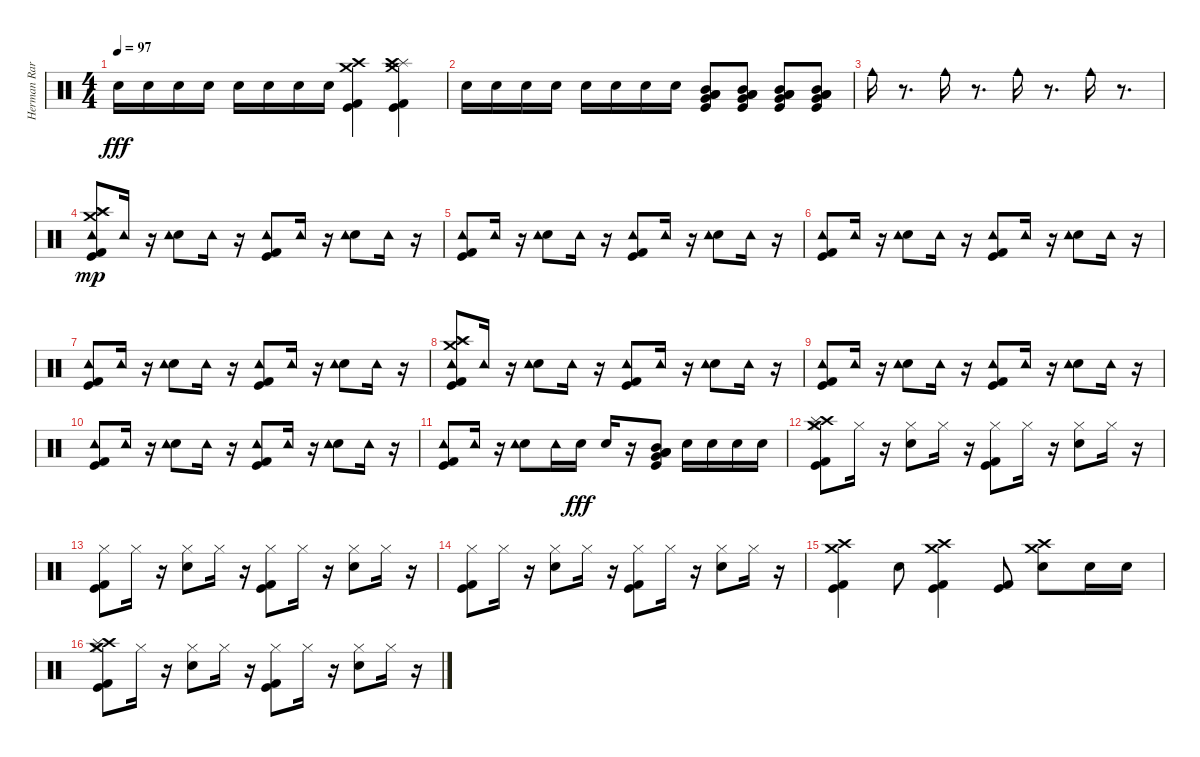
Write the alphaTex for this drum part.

\track ("Herman Rarebell - Drums and Percussion" "Herman Rar") {instrument percussion}
\staff {score}
\articulation defaults
\ts (4 4)
\tempo 97
\clef neutral
\ks c "Snare (hit) 2".16{dy fff} "Snare (hit) 2".16 "Snare (hit) 2".16 "Snare (hit) 2".16 "Snare (hit) 2".16 "Snare (hit) 2".16 "Snare (hit) 2".16 "Snare (hit) 2".16
("Kick (hit) 2" "Kick (hit)" "Crash medium (hit)" "Crash high (hit)").4 ("Kick (hit)" "Kick (hit) 2" "Crash medium (hit)" "Splash (hit)" "Crash high (hit)").4 |
"Snare (hit) 2".16 "Snare (hit) 2".16 "Snare (hit) 2".16 "Snare (hit) 2".16 "Snare (hit) 2".16 "Snare (hit) 2".16 "Snare (hit) 2".16 "Snare (hit) 2".16 ("Mid Tom (hit)" "Low Tom (hit)" "Very Low Tom (hit)" "Low Floor Tom (hit)" "Kick (hit)").8 ("Mid Tom (hit)" "Low Tom (hit)" "Very Low Tom (hit)" "Low Floor Tom (hit)" "Kick (hit)").8 ("Mid Tom (hit)" "Low Tom (hit)" "Very Low Tom (hit)" "Low Floor Tom (hit)" "Kick (hit)").8 ("Mid Tom (hit)" "Low Tom (hit)" "Very Low Tom (hit)" "Low Floor Tom (hit)" "Kick (hit)").8 |
"Cowbell medium (hit)".16 r.8{d} "Cowbell medium (hit)".16 r.8{d} "Cowbell medium (hit)".16 r.8{d} "Cowbell medium (hit)".16 r.8{d} |
("Crash high (hit)" "Splash (hit)" "Crash medium (hit)" "Kick (hit) 2" "Kick (hit)" "Tambourine (hit)").8{dy mp} "Tambourine (hit)".16 r.16 ("Snare (hit) 2" "Tambourine (hit)").8 "Tambourine (hit)".16 r.16 ("Kick (hit) 2" "Kick (hit)" "Tambourine (hit)").8 "Tambourine (hit)".16 r.16 ("Snare (hit) 2" "Tambourine (hit)").8 "Tambourine (hit)".16 r.16 |
("Kick (hit)" "Kick (hit) 2" "Tambourine (hit)").8 "Tambourine (hit)".16 r.16 ("Snare (hit) 2" "Tambourine (hit)").8 "Tambourine (hit)".16 r.16 ("Kick (hit) 2" "Kick (hit)" "Tambourine (hit)").8 "Tambourine (hit)".16 r.16 ("Snare (hit) 2" "Tambourine (hit)").8 "Tambourine (hit)".16 r.16 |
("Kick (hit)" "Kick (hit) 2" "Tambourine (hit)").8 "Tambourine (hit)".16 r.16 ("Snare (hit) 2" "Tambourine (hit)").8 "Tambourine (hit)".16 r.16 ("Kick (hit) 2" "Kick (hit)" "Tambourine (hit)").8 "Tambourine (hit)".16 r.16 ("Snare (hit) 2" "Tambourine (hit)").8 "Tambourine (hit)".16 r.16 |
("Kick (hit)" "Kick (hit) 2" "Tambourine (hit)").8 "Tambourine (hit)".16 r.16 ("Snare (hit) 2" "Tambourine (hit)").8 "Tambourine (hit)".16 r.16 ("Kick (hit) 2" "Kick (hit)" "Tambourine (hit)").8 "Tambourine (hit)".16 r.16 ("Snare (hit) 2" "Tambourine (hit)").8 "Tambourine (hit)".16 r.16 |
("Crash high (hit)" "Splash (hit)" "Crash medium (hit)" "Kick (hit) 2" "Kick (hit)" "Tambourine (hit)").8 "Tambourine (hit)".16 r.16 ("Snare (hit) 2" "Tambourine (hit)").8 "Tambourine (hit)".16 r.16 ("Kick (hit) 2" "Kick (hit)" "Tambourine (hit)").8 "Tambourine (hit)".16 r.16 ("Snare (hit) 2" "Tambourine (hit)").8 "Tambourine (hit)".16 r.16 |
("Kick (hit)" "Kick (hit) 2" "Tambourine (hit)").8 "Tambourine (hit)".16 r.16 ("Snare (hit) 2" "Tambourine (hit)").8 "Tambourine (hit)".16 r.16 ("Kick (hit) 2" "Kick (hit)" "Tambourine (hit)").8 "Tambourine (hit)".16 r.16 ("Snare (hit) 2" "Tambourine (hit)").8 "Tambourine (hit)".16 r.16 |
("Kick (hit)" "Kick (hit) 2" "Tambourine (hit)").8 "Tambourine (hit)".16 r.16 ("Snare (hit) 2" "Tambourine (hit)").8 "Tambourine (hit)".16 r.16 ("Kick (hit) 2" "Kick (hit)" "Tambourine (hit)").8 "Tambourine (hit)".16 r.16 ("Snare (hit) 2" "Tambourine (hit)").8 "Tambourine (hit)".16 r.16 |
("Kick (hit)" "Kick (hit) 2" "Tambourine (hit)").8 "Tambourine (hit)".16 r.16 ("Snare (hit) 2" "Tambourine (hit)").8 "Tambourine (hit)".16 "Snare (hit) 2".16{dy fff} "Snare (hit) 2".16 r.16 ("Mid Tom (hit)" "Low Tom (hit)" "Very Low Tom (hit)" "Low Floor Tom (hit)" "Kick (hit)").8 "Snare (hit) 2".16 "Snare (hit) 2".16 "Snare (hit) 2".16 "Snare (hit) 2".16 |
("Hi-Hat (closed)" "Crash high (hit)" "Splash (hit)" "Crash medium (hit)" "Kick (hit)" "Kick (hit) 2").8 "Hi-Hat (closed)".16 r.16 ("Snare (hit) 2" "Hi-Hat (closed)").8 "Hi-Hat (closed)".16 r.16 ("Kick (hit) 2" "Kick (hit)" "Hi-Hat (closed)").8 "Hi-Hat (closed)".16 r.16 ("Snare (hit) 2" "Hi-Hat (closed)").8 "Hi-Hat (closed)".16 r.16 |
("Hi-Hat (closed)" "Kick (hit)" "Kick (hit) 2").8 "Hi-Hat (closed)".16 r.16 ("Snare (hit) 2" "Hi-Hat (closed)").8 "Hi-Hat (closed)".16 r.16 ("Kick (hit) 2" "Kick (hit)" "Hi-Hat (closed)").8 "Hi-Hat (closed)".16 r.16 ("Snare (hit) 2" "Hi-Hat (closed)").8 "Hi-Hat (closed)".16 r.16 |
("Hi-Hat (closed)" "Kick (hit)" "Kick (hit) 2").8 "Hi-Hat (closed)".16 r.16 ("Snare (hit) 2" "Hi-Hat (closed)").8 "Hi-Hat (closed)".16 r.16 ("Kick (hit) 2" "Kick (hit)" "Hi-Hat (closed)").8 "Hi-Hat (closed)".16 r.16 ("Snare (hit) 2" "Hi-Hat (closed)").8 "Hi-Hat (closed)".16 r.16 |
("Kick (hit) 2" "Kick (hit)" "Crash high (hit)" "Crash medium (hit)").4 "Snare (hit) 2".8 ("Crash medium (hit)" "Crash high (hit)" "Kick (hit)" "Kick (hit) 2").4 ("Kick (hit)" "Kick (hit) 2").8 ("Crash medium (hit)" "Crash high (hit)" "Snare (hit) 2").8 "Snare (hit) 2".16 "Snare (hit) 2".16 |
("Hi-Hat (closed)" "Crash high (hit)" "Splash (hit)" "Crash medium (hit)" "Kick (hit)" "Kick (hit) 2").8 "Hi-Hat (closed)".16 r.16 ("Snare (hit) 2" "Hi-Hat (closed)").8 "Hi-Hat (closed)".16 r.16 ("Kick (hit) 2" "Kick (hit)" "Hi-Hat (closed)").8 "Hi-Hat (closed)".16 r.16 ("Snare (hit) 2" "Hi-Hat (closed)").8 "Hi-Hat (closed)".16 r.16
